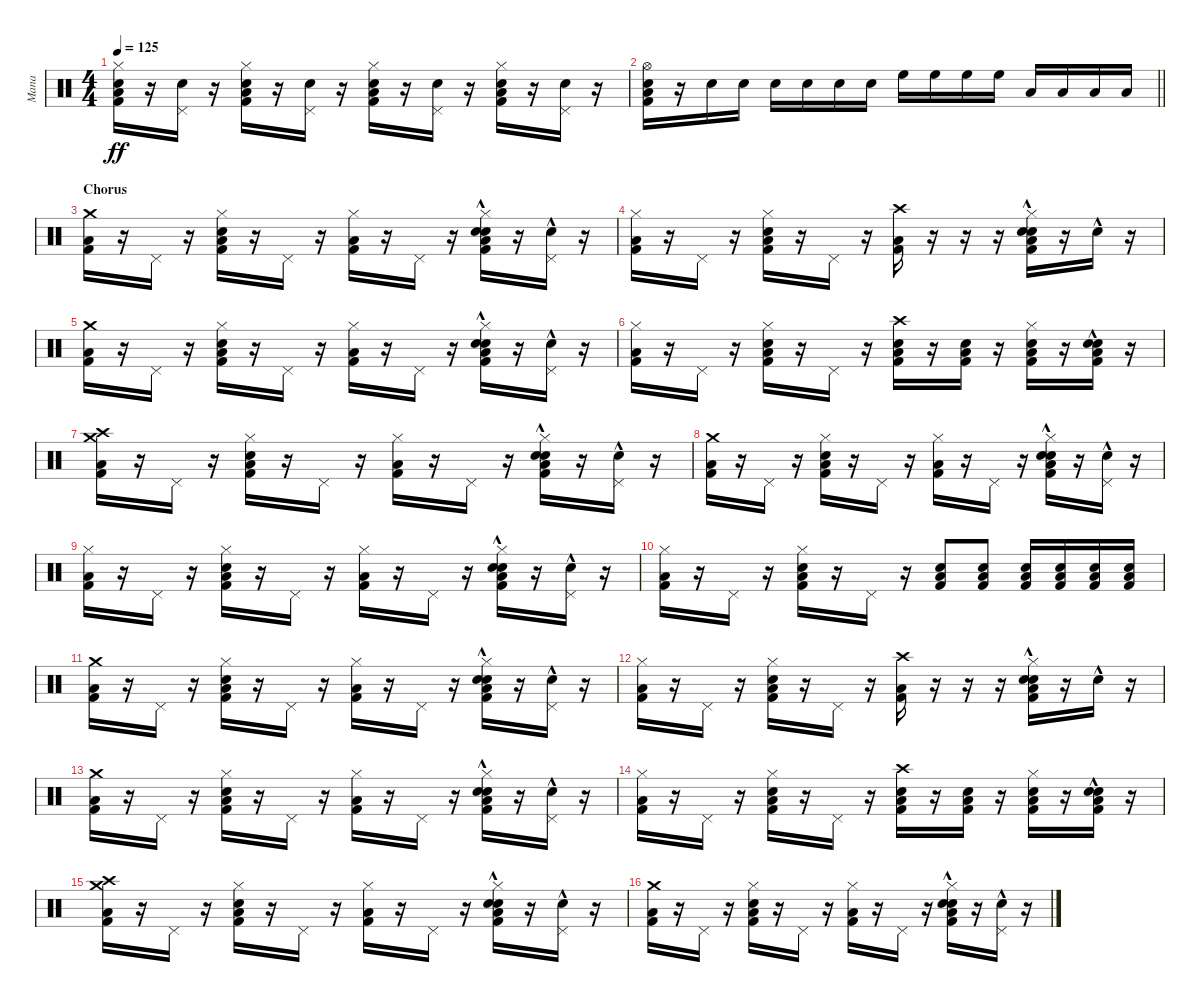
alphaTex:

\track ("Mana" "Mana") {instrument percussion}
\staff {score}
\articulation defaults
\ts (4 4)
\tempo 125
\clef neutral
\ks c
("Hi-Hat (closed)" "Snare (hit) 2" "Low Floor Tom (hit)" "Kick (hit) 2").16{dy ff} r.16 ("Pedal Hi-Hat (hit)" "Snare (hit) 2").16 r.16 ("Hi-Hat (closed)" "Snare (hit) 2" "Low Floor Tom (hit)" "Kick (hit) 2").16 r.16 ("Pedal Hi-Hat (hit)" "Snare (hit) 2").16 r.16 ("Hi-Hat (closed)" "Snare (hit) 2" "Low Floor Tom (hit)" "Kick (hit) 2").16 r.16 ("Pedal Hi-Hat (hit)" "Snare (hit) 2").16 r.16 ("Hi-Hat (closed)" "Snare (hit) 2" "Low Floor Tom (hit)" "Kick (hit) 2").16 r.16 ("Pedal Hi-Hat (hit)" "Snare (hit) 2").16 r.16 |
\barLineRight lightlight
("Hi-Hat (open)" "Snare (hit) 2" "Low Floor Tom (hit)" "Kick (hit) 2").16 r.16 "Snare (hit) 2".16 "Snare (hit) 2".16 "Snare (hit) 2".16 "Snare (hit) 2".16 "Snare (hit) 2".16 "Snare (hit) 2".16 "High Floor Tom (hit)".16 "High Floor Tom (hit)".16 "High Floor Tom (hit)".16 "High Floor Tom (hit)".16 "Low Floor Tom (hit)".16 "Low Floor Tom (hit)".16 "Low Floor Tom (hit)".16 "Low Floor Tom (hit)".16 |
\section ("" "Chorus ")
("Crash medium (hit)" "Low Floor Tom (hit)" "Kick (hit) 2").16 r.16 "Pedal Hi-Hat (hit)".16 r.16 ("Hi-Hat (closed)" "Snare (hit) 2" "Low Floor Tom (hit)" "Kick (hit) 2").16 r.16 "Pedal Hi-Hat (hit)".16 r.16 ("Hi-Hat (closed)" "Low Floor Tom (hit)" "Kick (hit) 2").16 r.16 "Pedal Hi-Hat (hit)".16 r.16 ("Hand Clap (hit)"{hac} "Hi-Hat (closed)" "Snare (hit) 2" "Low Floor Tom (hit)" "Kick (hit) 2").16 r.16 ("Hand Clap (hit)"{hac} "Pedal Hi-Hat (hit)").16 r.16 |
("Hi-Hat (closed)" "Low Floor Tom (hit)" "Kick (hit) 2").16 r.16 "Pedal Hi-Hat (hit)".16 r.16 ("Hi-Hat (closed)" "Snare (hit) 2" "Low Floor Tom (hit)" "Kick (hit) 2").16 r.16 "Pedal Hi-Hat (hit)".16 r.16 ("Crash high (hit)" "Low Floor Tom (hit)" "Kick (hit) 2").16 r.16 r.16 r.16 ("Hand Clap (hit)"{hac} "Hi-Hat (closed)" "Snare (hit) 2" "Low Floor Tom (hit)" "Kick (hit) 2").16 r.16 "Hand Clap (hit)"{hac}.16 r.16 |
("Crash medium (hit)" "Low Floor Tom (hit)" "Kick (hit) 2").16 r.16 "Pedal Hi-Hat (hit)".16 r.16 ("Hi-Hat (closed)" "Snare (hit) 2" "Low Floor Tom (hit)" "Kick (hit) 2").16 r.16 "Pedal Hi-Hat (hit)".16 r.16 ("Hi-Hat (closed)" "Low Floor Tom (hit)" "Kick (hit) 2").16 r.16 "Pedal Hi-Hat (hit)".16 r.16 ("Hand Clap (hit)"{hac} "Hi-Hat (closed)" "Snare (hit) 2" "Low Floor Tom (hit)" "Kick (hit) 2").16 r.16 ("Hand Clap (hit)"{hac} "Pedal Hi-Hat (hit)").16 r.16 |
("Hi-Hat (closed)" "Low Floor Tom (hit)" "Kick (hit) 2").16 r.16 "Pedal Hi-Hat (hit)".16 r.16 ("Hi-Hat (closed)" "Snare (hit) 2" "Low Floor Tom (hit)" "Kick (hit) 2").16 r.16 "Pedal Hi-Hat (hit)".16 r.16 ("Crash high (hit)" "Snare (hit) 2" "Low Floor Tom (hit)" "Kick (hit) 2").16 r.16 ("Snare (hit) 2" "Low Floor Tom (hit)" "Kick (hit) 2").16 r.16 ("Hand Clap (hit)" "Hi-Hat (closed)" "Low Floor Tom (hit)" "Kick (hit) 2").16 r.16 ("Hand Clap (hit)"{hac} "Snare (hit) 2" "Low Floor Tom (hit)" "Kick (hit) 2").16 r.16 |
("Crash medium (hit)" "Crash high (hit)" "Low Floor Tom (hit)" "Kick (hit) 2").16 r.16 "Pedal Hi-Hat (hit)".16 r.16 ("Hi-Hat (closed)" "Snare (hit) 2" "Low Floor Tom (hit)" "Kick (hit) 2").16 r.16 "Pedal Hi-Hat (hit)".16 r.16 ("Hi-Hat (closed)" "Low Floor Tom (hit)" "Kick (hit) 2").16 r.16 "Pedal Hi-Hat (hit)".16 r.16 ("Hand Clap (hit)"{hac} "Hi-Hat (closed)" "Snare (hit) 2" "Low Floor Tom (hit)" "Kick (hit) 2").16 r.16 ("Hand Clap (hit)"{hac} "Pedal Hi-Hat (hit)").16 r.16 |
("Crash medium (hit)" "Low Floor Tom (hit)" "Kick (hit) 2").16 r.16 "Pedal Hi-Hat (hit)".16 r.16 ("Hi-Hat (closed)" "Snare (hit) 2" "Low Floor Tom (hit)" "Kick (hit) 2").16 r.16 "Pedal Hi-Hat (hit)".16 r.16 ("Hi-Hat (closed)" "Low Floor Tom (hit)" "Kick (hit) 2").16 r.16 "Pedal Hi-Hat (hit)".16 r.16 ("Hand Clap (hit)"{hac} "Hi-Hat (closed)" "Snare (hit) 2" "Low Floor Tom (hit)" "Kick (hit) 2").16 r.16 ("Hand Clap (hit)"{hac} "Pedal Hi-Hat (hit)").16 r.16 |
("Hi-Hat (closed)" "Low Floor Tom (hit)" "Kick (hit) 2").16 r.16 "Pedal Hi-Hat (hit)".16 r.16 ("Hi-Hat (closed)" "Snare (hit) 2" "Low Floor Tom (hit)" "Kick (hit) 2").16 r.16 "Pedal Hi-Hat (hit)".16 r.16 ("Hi-Hat (closed)" "Low Floor Tom (hit)" "Kick (hit) 2").16 r.16 "Pedal Hi-Hat (hit)".16 r.16 ("Hand Clap (hit)"{hac} "Hi-Hat (closed)" "Snare (hit) 2" "Low Floor Tom (hit)" "Kick (hit) 2").16 r.16 ("Hand Clap (hit)"{hac} "Pedal Hi-Hat (hit)").16 r.16 |
("Hi-Hat (closed)" "Low Floor Tom (hit)" "Kick (hit) 2").16 r.16 "Pedal Hi-Hat (hit)".16 r.16 ("Hi-Hat (closed)" "Snare (hit) 2" "Low Floor Tom (hit)" "Kick (hit) 2").16 r.16 "Pedal Hi-Hat (hit)".16 r.16 ("Low Floor Tom (hit)" "Snare (hit) 2" "Kick (hit) 2").8 ("Low Floor Tom (hit)" "Snare (hit) 2" "Kick (hit) 2").8 ("Low Floor Tom (hit)" "Snare (hit) 2" "Kick (hit) 2").16 ("Low Floor Tom (hit)" "Snare (hit) 2" "Kick (hit) 2").16 ("Low Floor Tom (hit)" "Snare (hit) 2" "Kick (hit) 2").16 ("Low Floor Tom (hit)" "Snare (hit) 2" "Kick (hit) 2").16 |
("Crash medium (hit)" "Low Floor Tom (hit)" "Kick (hit) 2").16 r.16 "Pedal Hi-Hat (hit)".16 r.16 ("Hi-Hat (closed)" "Snare (hit) 2" "Low Floor Tom (hit)" "Kick (hit) 2").16 r.16 "Pedal Hi-Hat (hit)".16 r.16 ("Hi-Hat (closed)" "Low Floor Tom (hit)" "Kick (hit) 2").16 r.16 "Pedal Hi-Hat (hit)".16 r.16 ("Hand Clap (hit)"{hac} "Hi-Hat (closed)" "Snare (hit) 2" "Low Floor Tom (hit)" "Kick (hit) 2").16 r.16 ("Hand Clap (hit)"{hac} "Pedal Hi-Hat (hit)").16 r.16 |
("Hi-Hat (closed)" "Low Floor Tom (hit)" "Kick (hit) 2").16 r.16 "Pedal Hi-Hat (hit)".16 r.16 ("Hi-Hat (closed)" "Snare (hit) 2" "Low Floor Tom (hit)" "Kick (hit) 2").16 r.16 "Pedal Hi-Hat (hit)".16 r.16 ("Crash high (hit)" "Low Floor Tom (hit)" "Kick (hit) 2").16 r.16 r.16 r.16 ("Hand Clap (hit)"{hac} "Hi-Hat (closed)" "Snare (hit) 2" "Low Floor Tom (hit)" "Kick (hit) 2").16 r.16 "Hand Clap (hit)"{hac}.16 r.16 |
("Crash medium (hit)" "Low Floor Tom (hit)" "Kick (hit) 2").16 r.16 "Pedal Hi-Hat (hit)".16 r.16 ("Hi-Hat (closed)" "Snare (hit) 2" "Low Floor Tom (hit)" "Kick (hit) 2").16 r.16 "Pedal Hi-Hat (hit)".16 r.16 ("Hi-Hat (closed)" "Low Floor Tom (hit)" "Kick (hit) 2").16 r.16 "Pedal Hi-Hat (hit)".16 r.16 ("Hand Clap (hit)"{hac} "Hi-Hat (closed)" "Snare (hit) 2" "Low Floor Tom (hit)" "Kick (hit) 2").16 r.16 ("Hand Clap (hit)"{hac} "Pedal Hi-Hat (hit)").16 r.16 |
("Hi-Hat (closed)" "Low Floor Tom (hit)" "Kick (hit) 2").16 r.16 "Pedal Hi-Hat (hit)".16 r.16 ("Hi-Hat (closed)" "Snare (hit) 2" "Low Floor Tom (hit)" "Kick (hit) 2").16 r.16 "Pedal Hi-Hat (hit)".16 r.16 ("Crash high (hit)" "Snare (hit) 2" "Low Floor Tom (hit)" "Kick (hit) 2").16 r.16 ("Snare (hit) 2" "Low Floor Tom (hit)" "Kick (hit) 2").16 r.16 ("Hand Clap (hit)" "Hi-Hat (closed)" "Low Floor Tom (hit)" "Kick (hit) 2").16 r.16 ("Hand Clap (hit)"{hac} "Snare (hit) 2" "Low Floor Tom (hit)" "Kick (hit) 2").16 r.16 |
("Crash medium (hit)" "Crash high (hit)" "Low Floor Tom (hit)" "Kick (hit) 2").16 r.16 "Pedal Hi-Hat (hit)".16 r.16 ("Hi-Hat (closed)" "Snare (hit) 2" "Low Floor Tom (hit)" "Kick (hit) 2").16 r.16 "Pedal Hi-Hat (hit)".16 r.16 ("Hi-Hat (closed)" "Low Floor Tom (hit)" "Kick (hit) 2").16 r.16 "Pedal Hi-Hat (hit)".16 r.16 ("Hand Clap (hit)"{hac} "Hi-Hat (closed)" "Snare (hit) 2" "Low Floor Tom (hit)" "Kick (hit) 2").16 r.16 ("Hand Clap (hit)"{hac} "Pedal Hi-Hat (hit)").16 r.16 |
("Crash medium (hit)" "Low Floor Tom (hit)" "Kick (hit) 2").16 r.16 "Pedal Hi-Hat (hit)".16 r.16 ("Hi-Hat (closed)" "Snare (hit) 2" "Low Floor Tom (hit)" "Kick (hit) 2").16 r.16 "Pedal Hi-Hat (hit)".16 r.16 ("Hi-Hat (closed)" "Low Floor Tom (hit)" "Kick (hit) 2").16 r.16 "Pedal Hi-Hat (hit)".16 r.16 ("Hand Clap (hit)"{hac} "Hi-Hat (closed)" "Snare (hit) 2" "Low Floor Tom (hit)" "Kick (hit) 2").16 r.16 ("Hand Clap (hit)"{hac} "Pedal Hi-Hat (hit)").16 r.16
